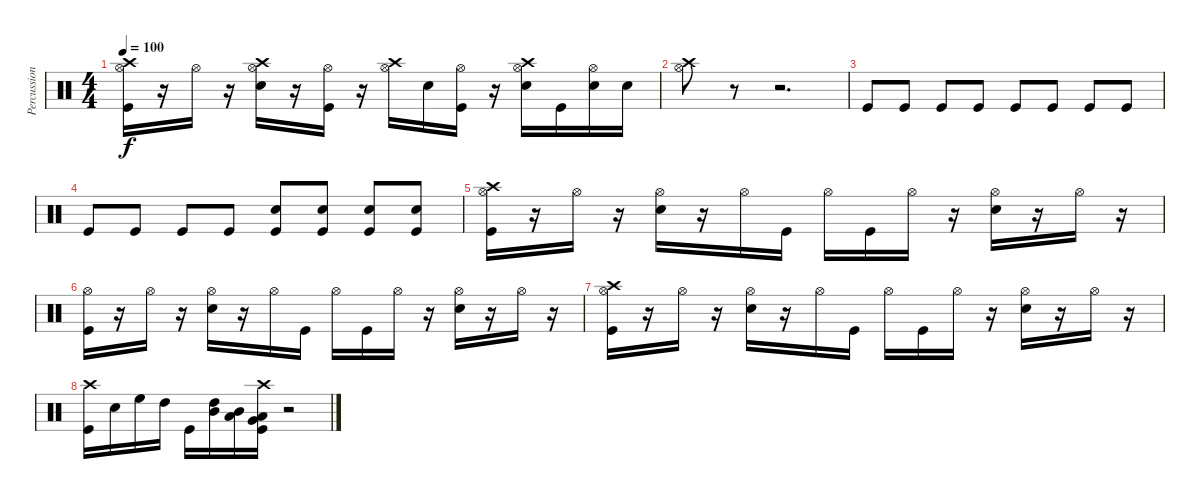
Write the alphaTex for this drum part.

\track ("Percussion" "Percussion") {instrument percussion}
\staff {score}
\articulation defaults
\ts (4 4)
\tempo 100
\clef neutral
\ks c
("Crash high (hit)" "Hi-Hat (open)" "Kick (hit)").16{dy f} r.16 "Hi-Hat (open)".16 r.16 ("Crash high (hit)" "Hi-Hat (open)" "Snare (hit) 2").16 r.16 ("Hi-Hat (open)" "Kick (hit)").16 r.16 ("Crash high (hit)" "Hi-Hat (open)").16 "Snare (hit) 2".16 ("Hi-Hat (open)" "Kick (hit)").16 r.16 ("Crash high (hit)" "Hi-Hat (open)" "Snare (hit) 2").16 "Kick (hit)".16 ("Hi-Hat (open)" "Snare (hit) 2").16 "Snare (hit) 2".16 |
("Crash high (hit)" "Hi-Hat (open)").8 r.8 r.2{d} |
"Kick (hit)".8 "Kick (hit)".8 "Kick (hit)".8 "Kick (hit)".8 "Kick (hit)".8 "Kick (hit)".8 "Kick (hit)".8 "Kick (hit)".8 |
"Kick (hit)".8 "Kick (hit)".8 "Kick (hit)".8 "Kick (hit)".8 ("Snare (hit) 2" "Kick (hit)").8 ("Snare (hit) 2" "Kick (hit)").8 ("Snare (hit) 2" "Kick (hit)").8 ("Snare (hit) 2" "Kick (hit)").8 |
("Crash high (hit)" "Hi-Hat (open)" "Kick (hit)").16 r.16 "Hi-Hat (open)".16 r.16 ("Hi-Hat (open)" "Snare (hit) 2").16 r.16 "Hi-Hat (open)".16 "Kick (hit)".16 "Hi-Hat (open)".16 "Kick (hit)".16 "Hi-Hat (open)".16 r.16 ("Hi-Hat (open)" "Snare (hit) 2").16 r.16 "Hi-Hat (open)".16 r.16 |
("Hi-Hat (open)" "Kick (hit)").16 r.16 "Hi-Hat (open)".16 r.16 ("Hi-Hat (open)" "Snare (hit) 2").16 r.16 "Hi-Hat (open)".16 "Kick (hit)".16 "Hi-Hat (open)".16 "Kick (hit)".16 "Hi-Hat (open)".16 r.16 ("Hi-Hat (open)" "Snare (hit) 2").16 r.16 "Hi-Hat (open)".16 r.16 |
("Crash high (hit)" "Hi-Hat (open)" "Kick (hit)").16 r.16 "Hi-Hat (open)".16 r.16 ("Hi-Hat (open)" "Snare (hit) 2").16 r.16 "Hi-Hat (open)".16 "Kick (hit)".16 "Hi-Hat (open)".16 "Kick (hit)".16 "Hi-Hat (open)".16 r.16 ("Hi-Hat (open)" "Snare (hit) 2").16 r.16 "Hi-Hat (open)".16 r.16 |
("Crash high (hit)" "Kick (hit)").16 "Snare (hit) 2".16 "High Floor Tom (hit)".16 "High Tom (hit)".16 "Kick (hit)".16 ("Mid Tom (hit)" "High Tom (hit)").16 ("Mid Tom (hit)" "Low Tom (hit)").16 ("Crash high (hit)" "Low Tom (hit)" "Very Low Tom (hit)" "Kick (hit)").16 r.2
